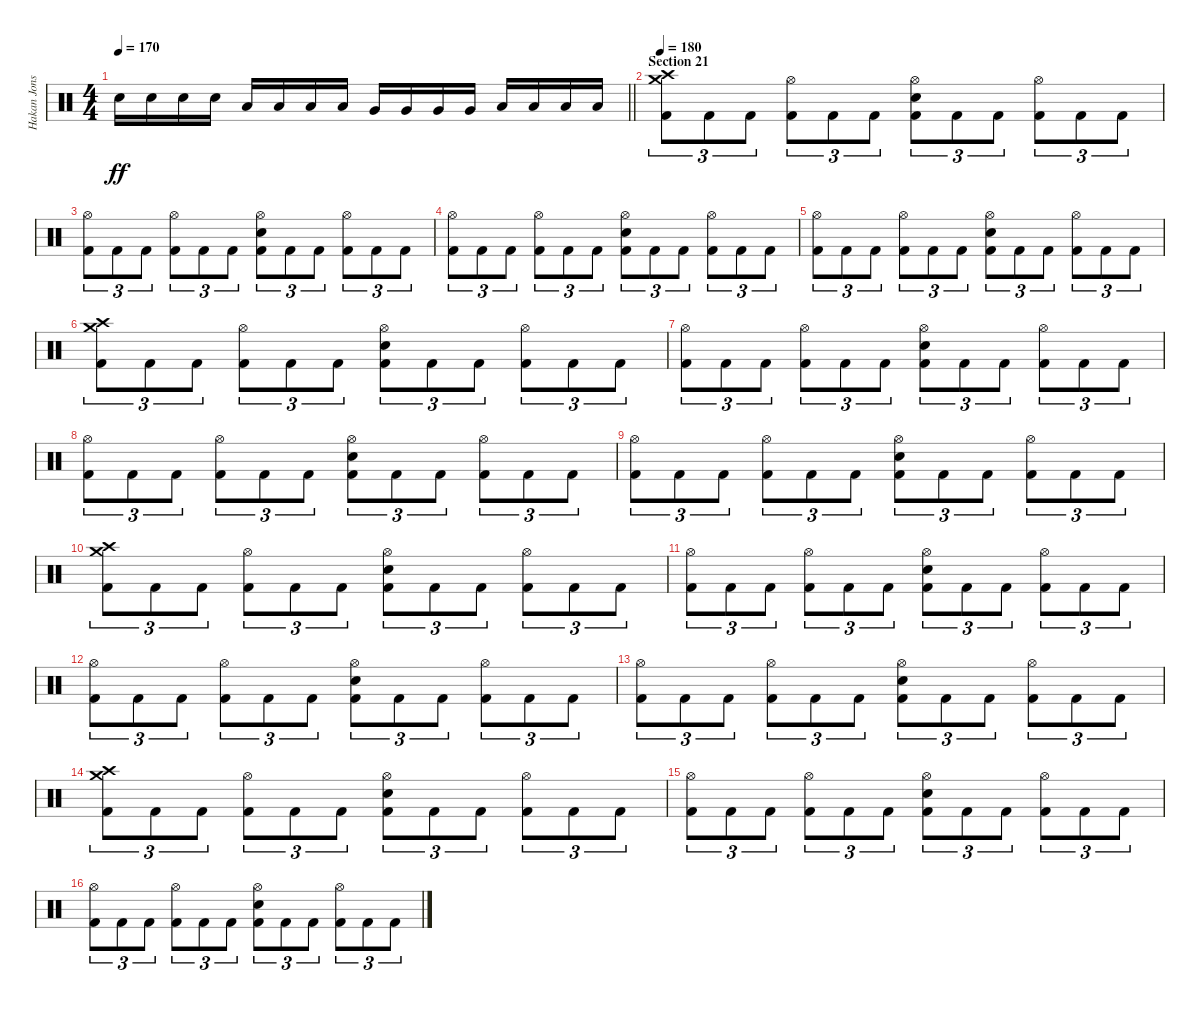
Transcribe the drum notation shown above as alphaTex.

\track ("Hakan Jonsson" "Hakan Jons") {instrument percussion}
\staff {score}
\articulation defaults
\ts (4 4)
\tempo 170
\clef neutral
\barLineRight lightlight
\ks c "Electric Snare (hit)".16{dy ff} "Electric Snare (hit)".16 "Electric Snare (hit)".16 "Electric Snare (hit)".16 "Low Tom (hit)".16 "Low Tom (hit)".16 "Low Tom (hit)".16 "Low Tom (hit)".16 "Very Low Tom (hit)".16 "Very Low Tom (hit)".16 "Very Low Tom (hit)".16 "Very Low Tom (hit)".16 "Low Floor Tom (hit)".16 "Low Floor Tom (hit)".16 "Low Floor Tom (hit)".16 "Low Floor Tom (hit)".16
|
\section ("" "Section 21")
\tempo 180
("Crash high (hit)" "Crash medium (hit)" "Kick (hit) 2").8{tu (3 2)} "Kick (hit) 2".8{tu (3 2)} "Kick (hit) 2".8{tu (3 2)} ("Hi-Hat (open)" "Kick (hit) 2").8{tu (3 2)} "Kick (hit) 2".8{tu (3 2)} "Kick (hit) 2".8{tu (3 2)} ("Hi-Hat (open)" "Electric Snare (hit)" "Kick (hit) 2").8{tu (3 2)} "Kick (hit) 2".8{tu (3 2)} "Kick (hit) 2".8{tu (3 2)} ("Hi-Hat (open)" "Kick (hit) 2").8{tu (3 2)} "Kick (hit) 2".8{tu (3 2)} "Kick (hit) 2".8{tu (3 2)} |
("Hi-Hat (open)" "Kick (hit) 2").8{tu (3 2)} "Kick (hit) 2".8{tu (3 2)} "Kick (hit) 2".8{tu (3 2)} ("Hi-Hat (open)" "Kick (hit) 2").8{tu (3 2)} "Kick (hit) 2".8{tu (3 2)} "Kick (hit) 2".8{tu (3 2)} ("Hi-Hat (open)" "Electric Snare (hit)" "Kick (hit) 2").8{tu (3 2)} "Kick (hit) 2".8{tu (3 2)} "Kick (hit) 2".8{tu (3 2)} ("Hi-Hat (open)" "Kick (hit) 2").8{tu (3 2)} "Kick (hit) 2".8{tu (3 2)} "Kick (hit) 2".8{tu (3 2)} |
("Hi-Hat (open)" "Kick (hit) 2").8{tu (3 2)} "Kick (hit) 2".8{tu (3 2)} "Kick (hit) 2".8{tu (3 2)} ("Hi-Hat (open)" "Kick (hit) 2").8{tu (3 2)} "Kick (hit) 2".8{tu (3 2)} "Kick (hit) 2".8{tu (3 2)} ("Hi-Hat (open)" "Electric Snare (hit)" "Kick (hit) 2").8{tu (3 2)} "Kick (hit) 2".8{tu (3 2)} "Kick (hit) 2".8{tu (3 2)} ("Hi-Hat (open)" "Kick (hit) 2").8{tu (3 2)} "Kick (hit) 2".8{tu (3 2)} "Kick (hit) 2".8{tu (3 2)} |
("Hi-Hat (open)" "Kick (hit) 2").8{tu (3 2)} "Kick (hit) 2".8{tu (3 2)} "Kick (hit) 2".8{tu (3 2)} ("Hi-Hat (open)" "Kick (hit) 2").8{tu (3 2)} "Kick (hit) 2".8{tu (3 2)} "Kick (hit) 2".8{tu (3 2)} ("Hi-Hat (open)" "Electric Snare (hit)" "Kick (hit) 2").8{tu (3 2)} "Kick (hit) 2".8{tu (3 2)} "Kick (hit) 2".8{tu (3 2)} ("Hi-Hat (open)" "Kick (hit) 2").8{tu (3 2)} "Kick (hit) 2".8{tu (3 2)} "Kick (hit) 2".8{tu (3 2)} |
("Crash high (hit)" "Crash medium (hit)" "Kick (hit) 2").8{tu (3 2)} "Kick (hit) 2".8{tu (3 2)} "Kick (hit) 2".8{tu (3 2)} ("Hi-Hat (open)" "Kick (hit) 2").8{tu (3 2)} "Kick (hit) 2".8{tu (3 2)} "Kick (hit) 2".8{tu (3 2)} ("Hi-Hat (open)" "Electric Snare (hit)" "Kick (hit) 2").8{tu (3 2)} "Kick (hit) 2".8{tu (3 2)} "Kick (hit) 2".8{tu (3 2)} ("Hi-Hat (open)" "Kick (hit) 2").8{tu (3 2)} "Kick (hit) 2".8{tu (3 2)} "Kick (hit) 2".8{tu (3 2)} |
("Hi-Hat (open)" "Kick (hit) 2").8{tu (3 2)} "Kick (hit) 2".8{tu (3 2)} "Kick (hit) 2".8{tu (3 2)} ("Hi-Hat (open)" "Kick (hit) 2").8{tu (3 2)} "Kick (hit) 2".8{tu (3 2)} "Kick (hit) 2".8{tu (3 2)} ("Hi-Hat (open)" "Electric Snare (hit)" "Kick (hit) 2").8{tu (3 2)} "Kick (hit) 2".8{tu (3 2)} "Kick (hit) 2".8{tu (3 2)} ("Hi-Hat (open)" "Kick (hit) 2").8{tu (3 2)} "Kick (hit) 2".8{tu (3 2)} "Kick (hit) 2".8{tu (3 2)} |
("Hi-Hat (open)" "Kick (hit) 2").8{tu (3 2)} "Kick (hit) 2".8{tu (3 2)} "Kick (hit) 2".8{tu (3 2)} ("Hi-Hat (open)" "Kick (hit) 2").8{tu (3 2)} "Kick (hit) 2".8{tu (3 2)} "Kick (hit) 2".8{tu (3 2)} ("Hi-Hat (open)" "Electric Snare (hit)" "Kick (hit) 2").8{tu (3 2)} "Kick (hit) 2".8{tu (3 2)} "Kick (hit) 2".8{tu (3 2)} ("Hi-Hat (open)" "Kick (hit) 2").8{tu (3 2)} "Kick (hit) 2".8{tu (3 2)} "Kick (hit) 2".8{tu (3 2)} |
("Hi-Hat (open)" "Kick (hit) 2").8{tu (3 2)} "Kick (hit) 2".8{tu (3 2)} "Kick (hit) 2".8{tu (3 2)} ("Hi-Hat (open)" "Kick (hit) 2").8{tu (3 2)} "Kick (hit) 2".8{tu (3 2)} "Kick (hit) 2".8{tu (3 2)} ("Hi-Hat (open)" "Electric Snare (hit)" "Kick (hit) 2").8{tu (3 2)} "Kick (hit) 2".8{tu (3 2)} "Kick (hit) 2".8{tu (3 2)} ("Hi-Hat (open)" "Kick (hit) 2").8{tu (3 2)} "Kick (hit) 2".8{tu (3 2)} "Kick (hit) 2".8{tu (3 2)} |
("Crash high (hit)" "Crash medium (hit)" "Kick (hit) 2").8{tu (3 2)} "Kick (hit) 2".8{tu (3 2)} "Kick (hit) 2".8{tu (3 2)} ("Hi-Hat (open)" "Kick (hit) 2").8{tu (3 2)} "Kick (hit) 2".8{tu (3 2)} "Kick (hit) 2".8{tu (3 2)} ("Hi-Hat (open)" "Electric Snare (hit)" "Kick (hit) 2").8{tu (3 2)} "Kick (hit) 2".8{tu (3 2)} "Kick (hit) 2".8{tu (3 2)} ("Hi-Hat (open)" "Kick (hit) 2").8{tu (3 2)} "Kick (hit) 2".8{tu (3 2)} "Kick (hit) 2".8{tu (3 2)} |
("Hi-Hat (open)" "Kick (hit) 2").8{tu (3 2)} "Kick (hit) 2".8{tu (3 2)} "Kick (hit) 2".8{tu (3 2)} ("Hi-Hat (open)" "Kick (hit) 2").8{tu (3 2)} "Kick (hit) 2".8{tu (3 2)} "Kick (hit) 2".8{tu (3 2)} ("Hi-Hat (open)" "Electric Snare (hit)" "Kick (hit) 2").8{tu (3 2)} "Kick (hit) 2".8{tu (3 2)} "Kick (hit) 2".8{tu (3 2)} ("Hi-Hat (open)" "Kick (hit) 2").8{tu (3 2)} "Kick (hit) 2".8{tu (3 2)} "Kick (hit) 2".8{tu (3 2)} |
("Hi-Hat (open)" "Kick (hit) 2").8{tu (3 2)} "Kick (hit) 2".8{tu (3 2)} "Kick (hit) 2".8{tu (3 2)} ("Hi-Hat (open)" "Kick (hit) 2").8{tu (3 2)} "Kick (hit) 2".8{tu (3 2)} "Kick (hit) 2".8{tu (3 2)} ("Hi-Hat (open)" "Electric Snare (hit)" "Kick (hit) 2").8{tu (3 2)} "Kick (hit) 2".8{tu (3 2)} "Kick (hit) 2".8{tu (3 2)} ("Hi-Hat (open)" "Kick (hit) 2").8{tu (3 2)} "Kick (hit) 2".8{tu (3 2)} "Kick (hit) 2".8{tu (3 2)} |
("Hi-Hat (open)" "Kick (hit) 2").8{tu (3 2)} "Kick (hit) 2".8{tu (3 2)} "Kick (hit) 2".8{tu (3 2)} ("Hi-Hat (open)" "Kick (hit) 2").8{tu (3 2)} "Kick (hit) 2".8{tu (3 2)} "Kick (hit) 2".8{tu (3 2)} ("Hi-Hat (open)" "Electric Snare (hit)" "Kick (hit) 2").8{tu (3 2)} "Kick (hit) 2".8{tu (3 2)} "Kick (hit) 2".8{tu (3 2)} ("Hi-Hat (open)" "Kick (hit) 2").8{tu (3 2)} "Kick (hit) 2".8{tu (3 2)} "Kick (hit) 2".8{tu (3 2)} |
("Crash high (hit)" "Crash medium (hit)" "Kick (hit) 2").8{tu (3 2)} "Kick (hit) 2".8{tu (3 2)} "Kick (hit) 2".8{tu (3 2)} ("Hi-Hat (open)" "Kick (hit) 2").8{tu (3 2)} "Kick (hit) 2".8{tu (3 2)} "Kick (hit) 2".8{tu (3 2)} ("Hi-Hat (open)" "Electric Snare (hit)" "Kick (hit) 2").8{tu (3 2)} "Kick (hit) 2".8{tu (3 2)} "Kick (hit) 2".8{tu (3 2)} ("Hi-Hat (open)" "Kick (hit) 2").8{tu (3 2)} "Kick (hit) 2".8{tu (3 2)} "Kick (hit) 2".8{tu (3 2)} |
("Hi-Hat (open)" "Kick (hit) 2").8{tu (3 2)} "Kick (hit) 2".8{tu (3 2)} "Kick (hit) 2".8{tu (3 2)} ("Hi-Hat (open)" "Kick (hit) 2").8{tu (3 2)} "Kick (hit) 2".8{tu (3 2)} "Kick (hit) 2".8{tu (3 2)} ("Hi-Hat (open)" "Electric Snare (hit)" "Kick (hit) 2").8{tu (3 2)} "Kick (hit) 2".8{tu (3 2)} "Kick (hit) 2".8{tu (3 2)} ("Hi-Hat (open)" "Kick (hit) 2").8{tu (3 2)} "Kick (hit) 2".8{tu (3 2)} "Kick (hit) 2".8{tu (3 2)} |
("Hi-Hat (open)" "Kick (hit) 2").8{tu (3 2)} "Kick (hit) 2".8{tu (3 2)} "Kick (hit) 2".8{tu (3 2)} ("Hi-Hat (open)" "Kick (hit) 2").8{tu (3 2)} "Kick (hit) 2".8{tu (3 2)} "Kick (hit) 2".8{tu (3 2)} ("Hi-Hat (open)" "Electric Snare (hit)" "Kick (hit) 2").8{tu (3 2)} "Kick (hit) 2".8{tu (3 2)} "Kick (hit) 2".8{tu (3 2)} ("Hi-Hat (open)" "Kick (hit) 2").8{tu (3 2)} "Kick (hit) 2".8{tu (3 2)} "Kick (hit) 2".8{tu (3 2)}
